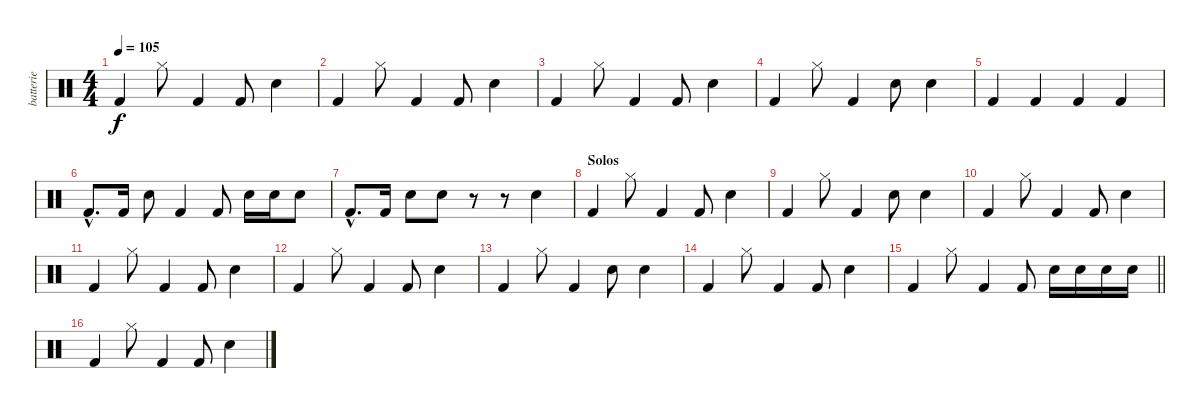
\track ("batterie" "batterie") {instrument percussion}
\staff {score}
\articulation defaults
\ts (4 4)
\tempo 105
\clef neutral
\ks c "Kick (hit) 2".4{dy f} "Hi-Hat (closed)".8 "Kick (hit) 2".4 "Kick (hit) 2".8 "Electric Snare (hit)".4
|
"Kick (hit) 2".4 "Hi-Hat (closed)".8 "Kick (hit) 2".4 "Kick (hit) 2".8 "Electric Snare (hit)".4 |
"Kick (hit) 2".4 "Hi-Hat (closed)".8 "Kick (hit) 2".4 "Kick (hit) 2".8 "Electric Snare (hit)".4 |
"Kick (hit) 2".4 "Hi-Hat (closed)".8 "Kick (hit) 2".4 "Electric Snare (hit)".8 "Electric Snare (hit)".4 |
"Kick (hit) 2".4 "Kick (hit) 2".4 "Kick (hit) 2".4 "Kick (hit) 2".4 |
"Kick (hit) 2"{hac}.8{d} "Kick (hit) 2".16 "Electric Snare (hit)".8 "Kick (hit) 2".4 "Kick (hit) 2".8 "Electric Snare (hit)".16 "Electric Snare (hit)".16 "Electric Snare (hit)".8 |
"Kick (hit) 2"{hac}.8{d} "Kick (hit) 2".16 "Electric Snare (hit)".8 "Electric Snare (hit)".8 r.8 r.8 "Electric Snare (hit)".4 |
\section ("" "Solos")
"Kick (hit) 2".4 "Hi-Hat (closed)".8 "Kick (hit) 2".4 "Kick (hit) 2".8 "Electric Snare (hit)".4 |
"Kick (hit) 2".4 "Hi-Hat (closed)".8 "Kick (hit) 2".4 "Electric Snare (hit)".8 "Electric Snare (hit)".4 |
"Kick (hit) 2".4 "Hi-Hat (closed)".8 "Kick (hit) 2".4 "Kick (hit) 2".8 "Electric Snare (hit)".4 |
"Kick (hit) 2".4 "Hi-Hat (closed)".8 "Kick (hit) 2".4 "Kick (hit) 2".8 "Electric Snare (hit)".4 |
"Kick (hit) 2".4 "Hi-Hat (closed)".8 "Kick (hit) 2".4 "Kick (hit) 2".8 "Electric Snare (hit)".4 |
"Kick (hit) 2".4 "Hi-Hat (closed)".8 "Kick (hit) 2".4 "Electric Snare (hit)".8 "Electric Snare (hit)".4 |
"Kick (hit) 2".4 "Hi-Hat (closed)".8 "Kick (hit) 2".4 "Kick (hit) 2".8 "Electric Snare (hit)".4 |
\barLineRight lightlight "Kick (hit) 2".4 "Hi-Hat (closed)".8 "Kick (hit) 2".4 "Kick (hit) 2".8 "Electric Snare (hit)".16 "Electric Snare (hit)".16 "Electric Snare (hit)".16 "Electric Snare (hit)".16
|
"Kick (hit) 2".4 "Hi-Hat (closed)".8 "Kick (hit) 2".4 "Kick (hit) 2".8 "Electric Snare (hit)".4
